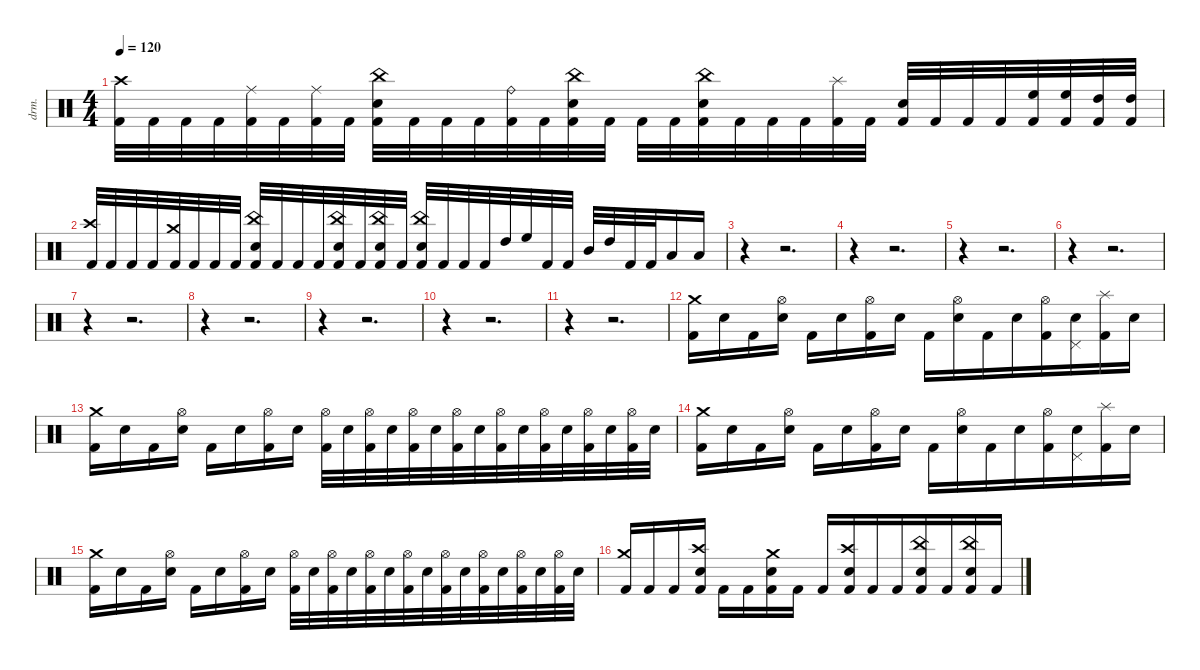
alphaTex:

\defaultSystemsLayout 4
\hideDynamics
\bracketExtendMode nobrackets
\otherSystemsTrackNameOrientation horizontal
\track ("Percussion" "drm.") {instrument percussion}
\staff {score}
\articulation defaults
\ts (4 4)
\tempo 120
\clef neutral
\ks c
("Kick (hit) 2" "Crash high (hit)").32{dy fff beam Down} "Kick (hit) 2".32{beam Down} "Kick (hit) 2".32{beam Down} "Kick (hit) 2".32{beam Down} ("Kick (hit) 2" "Ride (middle)").32{beam Down} "Kick (hit) 2".32{beam Down} ("Kick (hit) 2" "Ride (middle)").32{beam Down} "Kick (hit) 2".32{beam Down} ("Kick (hit) 2" "Snare (hit) 2" "China (hit)").32{beam Down} "Kick (hit) 2".32{beam Down} "Kick (hit) 2".32{beam Down} "Kick (hit) 2".32{beam Down} ("Kick (hit) 2" "Ride (bell)").32{beam Down} "Kick (hit) 2".32{beam Down} ("Kick (hit) 2" "Snare (hit) 2" "China (hit)").32{beam Down} "Kick (hit) 2".32{beam Down} "Kick (hit) 2".32{beam Down} "Kick (hit) 2".32{beam Down} ("Kick (hit) 2" "Snare (hit) 2" "China (hit)").32{beam Down} "Kick (hit) 2".32{beam Down} "Kick (hit) 2".32{beam Down} "Kick (hit) 2".32{beam Down} ("Kick (hit) 2" "Splash (hit)").32{beam Down} "Kick (hit) 2".32{beam Down} ("Kick (hit) 2" "Snare (hit) 2").32{beam Up} "Kick (hit) 2".32{beam Up} "Kick (hit) 2".32{beam Up} "Kick (hit) 2".32{beam Up} ("Kick (hit) 2" "High Floor Tom (hit)").32{beam Up} ("Kick (hit) 2" "High Floor Tom (hit)").32{beam Up} ("Kick (hit) 2" "High Tom (hit)").32{beam Up} ("Kick (hit) 2" "High Tom (hit)").32{beam Up} |
("Kick (hit) 2" "Crash high (hit)").32{beam Up} "Kick (hit) 2".32{beam Up} "Kick (hit) 2".32{beam Up} "Kick (hit) 2".32{beam Up} ("Kick (hit) 2" "Crash medium (hit)").32{beam Up} "Kick (hit) 2".32{beam Up} "Kick (hit) 2".32{beam Up} "Kick (hit) 2".32{beam Up} ("Kick (hit) 2" "Snare (hit) 2" "China (hit)").32{beam Up} "Kick (hit) 2".32{beam Up} "Kick (hit) 2".32{beam Up} "Kick (hit) 2".32{beam Up} ("Kick (hit) 2" "Snare (hit) 2" "China (hit)").32{beam Up} "Kick (hit) 2".32{beam Up} ("Kick (hit) 2" "Snare (hit) 2" "China (hit)").32{beam Up} "Kick (hit) 2".32{beam Up} ("Kick (hit) 2" "Snare (hit) 2" "China (hit)").32{beam Up} "Kick (hit) 2".32{beam Up} "Kick (hit) 2".32{beam Up} "Kick (hit) 2".32{beam Up} "High Tom (hit)".32{beam Up} "High Floor Tom (hit)".32{beam Up} "Kick (hit) 2".32{beam Up} "Kick (hit) 2".32{beam Up} "Mid Tom (hit)".32{beam Up} "High Tom (hit)".32{beam Up} "Kick (hit) 2".32{beam Up} "Kick (hit) 2".32{beam Up} "Low Floor Tom (hit)".16{beam Up} "Low Floor Tom (hit)".16{beam Up} |
r.4{beam Down} r.2{d beam Down} |
r.4{beam Down} r.2{d beam Down} |
r.4{beam Down} r.2{d beam Down} |
r.4{beam Down} r.2{d beam Down} |
r.4{beam Down} r.2{d beam Down} |
r.4{beam Down} r.2{d beam Down} |
r.4{beam Down} r.2{d beam Down} |
r.4{beam Down} r.2{d beam Down} |
r.4{beam Down} r.2{d beam Down} |
\beaming (8 2 2 4)
("Kick (hit) 2" "Crash medium (hit)").16{beam Down} "Snare (hit) 2".16{beam Down} "Kick (hit) 2".16{beam Down} ("Snare (hit) 2" "Hi-Hat (open)").16{beam Down} "Kick (hit) 2".16{beam Down} "Snare (hit) 2".16{beam Down} ("Kick (hit) 2" "Hi-Hat (open)").16{beam Down} "Snare (hit) 2".16{beam Down} "Kick (hit) 2".16{beam Down} ("Snare (hit) 2" "Hi-Hat (open)").16{beam Down} "Kick (hit) 2".16{beam Down} "Snare (hit) 2".16{beam Down} ("Kick (hit) 2" "Hi-Hat (open)").16{beam Down} ("Pedal Hi-Hat (hit)" "Snare (hit) 2").16{beam Down} ("Kick (hit) 2" "Splash (hit)").16{beam Down} "Snare (hit) 2".16{beam Down} |
("Kick (hit) 2" "Crash medium (hit)").16{beam Down} "Snare (hit) 2".16{beam Down} "Kick (hit) 2".16{beam Down} ("Snare (hit) 2" "Hi-Hat (open)").16{beam Down} "Kick (hit) 2".16{beam Down} "Snare (hit) 2".16{beam Down} ("Kick (hit) 2" "Hi-Hat (open)").16{beam Down} "Snare (hit) 2".16{beam Down} ("Kick (hit) 2" "Hi-Hat (open)").32{beam Down} "Snare (hit) 2".32{beam Down} ("Kick (hit) 2" "Hi-Hat (open)").32{beam Down} "Snare (hit) 2".32{beam Down} ("Kick (hit) 2" "Hi-Hat (open)").32{beam Down} "Snare (hit) 2".32{beam Down} ("Kick (hit) 2" "Hi-Hat (open)").32{beam Down} "Snare (hit) 2".32{beam Down} ("Kick (hit) 2" "Hi-Hat (open)").32{beam Down} "Snare (hit) 2".32{beam Down} ("Kick (hit) 2" "Hi-Hat (open)").32{beam Down} "Snare (hit) 2".32{beam Down} ("Kick (hit) 2" "Hi-Hat (open)").32{beam Down} "Snare (hit) 2".32{beam Down} ("Kick (hit) 2" "Hi-Hat (open)").32{beam Down} "Snare (hit) 2".32{beam Down} |
("Kick (hit) 2" "Crash medium (hit)").16{beam Down} "Snare (hit) 2".16{beam Down} "Kick (hit) 2".16{beam Down} ("Snare (hit) 2" "Hi-Hat (open)").16{beam Down} "Kick (hit) 2".16{beam Down} "Snare (hit) 2".16{beam Down} ("Kick (hit) 2" "Hi-Hat (open)").16{beam Down} "Snare (hit) 2".16{beam Down} "Kick (hit) 2".16{beam Down} ("Snare (hit) 2" "Hi-Hat (open)").16{beam Down} "Kick (hit) 2".16{beam Down} "Snare (hit) 2".16{beam Down} ("Kick (hit) 2" "Hi-Hat (open)").16{beam Down} ("Pedal Hi-Hat (hit)" "Snare (hit) 2").16{beam Down} ("Kick (hit) 2" "Splash (hit)").16{beam Down} "Snare (hit) 2".16{beam Down} |
("Kick (hit) 2" "Crash medium (hit)").16{beam Down} "Snare (hit) 2".16{beam Down} "Kick (hit) 2".16{beam Down} ("Snare (hit) 2" "Hi-Hat (open)").16{beam Down} "Kick (hit) 2".16{beam Down} "Snare (hit) 2".16{beam Down} ("Kick (hit) 2" "Hi-Hat (open)").16{beam Down} "Snare (hit) 2".16{beam Down} ("Kick (hit) 2" "Hi-Hat (open)").32{beam Down} "Snare (hit) 2".32{beam Down} ("Kick (hit) 2" "Hi-Hat (open)").32{beam Down} "Snare (hit) 2".32{beam Down} ("Kick (hit) 2" "Hi-Hat (open)").32{beam Down} "Snare (hit) 2".32{beam Down} ("Kick (hit) 2" "Hi-Hat (open)").32{beam Down} "Snare (hit) 2".32{beam Down} ("Kick (hit) 2" "Hi-Hat (open)").32{beam Down} "Snare (hit) 2".32{beam Down} ("Kick (hit) 2" "Hi-Hat (open)").32{beam Down} "Snare (hit) 2".32{beam Down} ("Kick (hit) 2" "Hi-Hat (open)").32{beam Down} "Snare (hit) 2".32{beam Down} ("Kick (hit) 2" "Hi-Hat (open)").32{beam Down} "Snare (hit) 2".32{beam Down} |
("Kick (hit) 2" "Crash medium (hit)").16{beam Up} "Kick (hit) 2".16{beam Up} "Kick (hit) 2".16{beam Up} ("Kick (hit) 2" "Snare (hit) 2" "Crash high (hit)").16{beam Up} "Kick (hit) 2".16{beam Down} "Kick (hit) 2".16{beam Down} ("Kick (hit) 2" "Snare (hit) 2" "Crash medium (hit)").16{beam Down} "Kick (hit) 2".16{beam Down} "Kick (hit) 2".16{beam Up} ("Kick (hit) 2" "Snare (hit) 2" "Crash high (hit)").16{beam Up} "Kick (hit) 2".16{beam Up} "Kick (hit) 2".16{beam Up} ("Kick (hit) 2" "Snare (hit) 2" "China (hit)").16{beam Up} "Kick (hit) 2".16{beam Up} ("Kick (hit) 2" "Snare (hit) 2" "China (hit)").16{beam Up} "Kick (hit) 2".16{beam Up}
